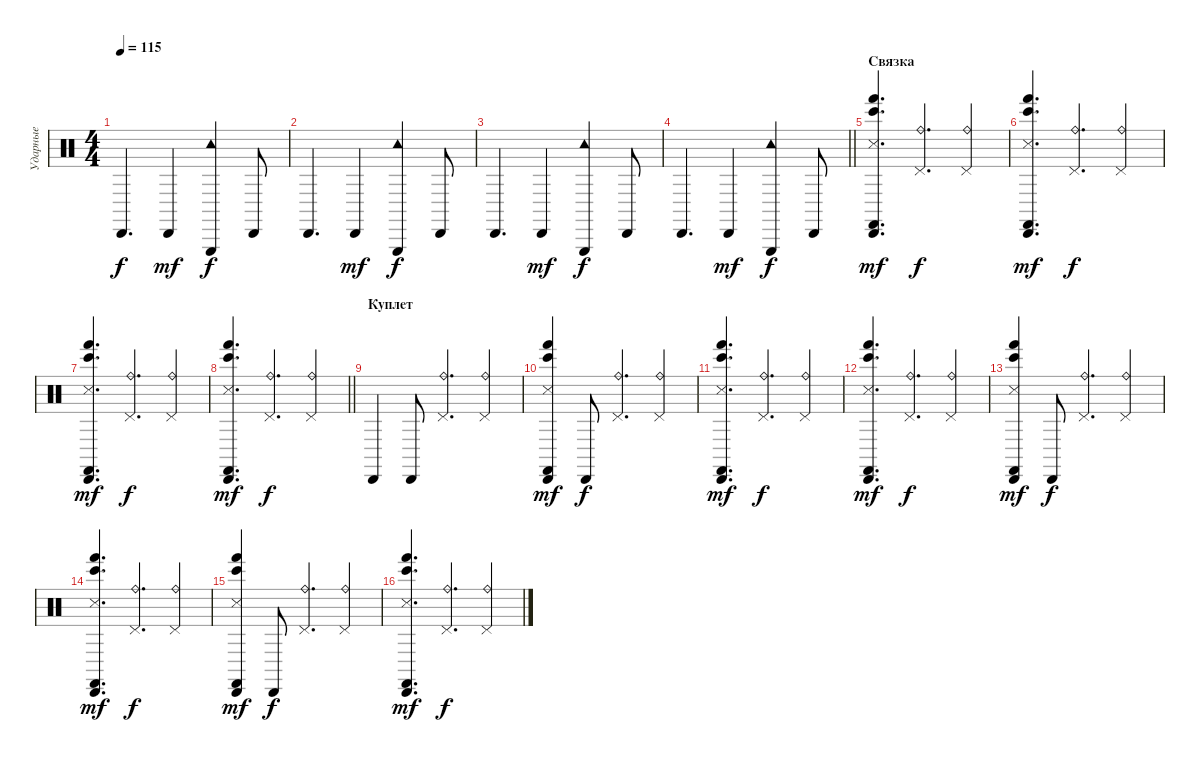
\track ("Ударные" "Ударные") {instrument percussion}
\staff {score}
\articulation defaults
\ts (4 4)
\tempo 115
\clef neutral
\ks c "Cabasa (hit)".4{d dy f} "Cabasa (hit)".4{dy mf}
("Tambourine (hit)" "Triangle (hit)").4{dy f} "Cabasa (hit)".8 |
"Cabasa (hit)".4{d} "Cabasa (hit)".4{dy mf} ("Tambourine (hit)" "Triangle (hit)").4{dy f} "Cabasa (hit)".8 |
"Cabasa (hit)".4{d} "Cabasa (hit)".4{dy mf} ("Tambourine (hit)" "Triangle (hit)").4{dy f} "Cabasa (hit)".8 |
\barLineRight lightlight "Cabasa (hit)".4{d} "Cabasa (hit)".4{dy mf}
("Tambourine (hit)" "Triangle (hit)").4{dy f} "Cabasa (hit)".8 |
\section ("" "Связка")
("Castanets (hit)" "Hand (hit)" "Snare (side stick) 3" "Bongo High (hit)" "Cabasa (hit)").4{d dy mf} ("Pedal Hi-Hat (hit)" "Ride (bell)").4{d dy f} ("Pedal Hi-Hat (hit)" "Ride (bell)").4 |
("Castanets (hit)" "Hand (hit)" "Snare (side stick) 3" "Bongo High (hit)" "Cabasa (hit)").4{d dy mf} ("Pedal Hi-Hat (hit)" "Ride (bell)").4{d dy f} ("Pedal Hi-Hat (hit)" "Ride (bell)").4 |
("Castanets (hit)" "Hand (hit)" "Snare (side stick) 3" "Bongo High (hit)" "Cabasa (hit)").4{d dy mf} ("Pedal Hi-Hat (hit)" "Ride (bell)").4{d dy f} ("Pedal Hi-Hat (hit)" "Ride (bell)").4 |
\barLineRight lightlight
("Castanets (hit)" "Hand (hit)" "Snare (side stick) 3" "Bongo High (hit)" "Cabasa (hit)").4{d dy mf} ("Pedal Hi-Hat (hit)" "Ride (bell)").4{d dy f} ("Pedal Hi-Hat (hit)" "Ride (bell)").4 |
\section ("" "Куплет")
"Cabasa (hit)".4 "Cabasa (hit)".8 ("Pedal Hi-Hat (hit)" "Ride (bell)").4{d} ("Pedal Hi-Hat (hit)" "Ride (bell)").4 |
("Castanets (hit)" "Hand (hit)" "Snare (side stick) 3" "Bongo High (hit)" "Cabasa (hit)").4{dy mf} "Cabasa (hit)".8{dy f} ("Pedal Hi-Hat (hit)" "Ride (bell)").4{d} ("Pedal Hi-Hat (hit)" "Ride (bell)").4 |
("Castanets (hit)" "Hand (hit)" "Snare (side stick) 3" "Bongo High (hit)" "Cabasa (hit)").4{d dy mf} ("Pedal Hi-Hat (hit)" "Ride (bell)").4{d dy f} ("Pedal Hi-Hat (hit)" "Ride (bell)").4 |
("Castanets (hit)" "Hand (hit)" "Snare (side stick) 3" "Bongo High (hit)" "Cabasa (hit)").4{d dy mf} ("Pedal Hi-Hat (hit)" "Ride (bell)").4{d dy f} ("Pedal Hi-Hat (hit)" "Ride (bell)").4 |
("Castanets (hit)" "Hand (hit)" "Snare (side stick) 3" "Bongo High (hit)" "Cabasa (hit)").4{dy mf} "Cabasa (hit)".8{dy f} ("Pedal Hi-Hat (hit)" "Ride (bell)").4{d} ("Pedal Hi-Hat (hit)" "Ride (bell)").4 |
("Castanets (hit)" "Hand (hit)" "Snare (side stick) 3" "Bongo High (hit)" "Cabasa (hit)").4{d dy mf} ("Pedal Hi-Hat (hit)" "Ride (bell)").4{d dy f} ("Pedal Hi-Hat (hit)" "Ride (bell)").4 |
("Castanets (hit)" "Hand (hit)" "Snare (side stick) 3" "Bongo High (hit)" "Cabasa (hit)").4{dy mf} "Cabasa (hit)".8{dy f} ("Pedal Hi-Hat (hit)" "Ride (bell)").4{d} ("Pedal Hi-Hat (hit)" "Ride (bell)").4 |
("Castanets (hit)" "Hand (hit)" "Snare (side stick) 3" "Bongo High (hit)" "Cabasa (hit)").4{d dy mf} ("Pedal Hi-Hat (hit)" "Ride (bell)").4{d dy f} ("Pedal Hi-Hat (hit)" "Ride (bell)").4
